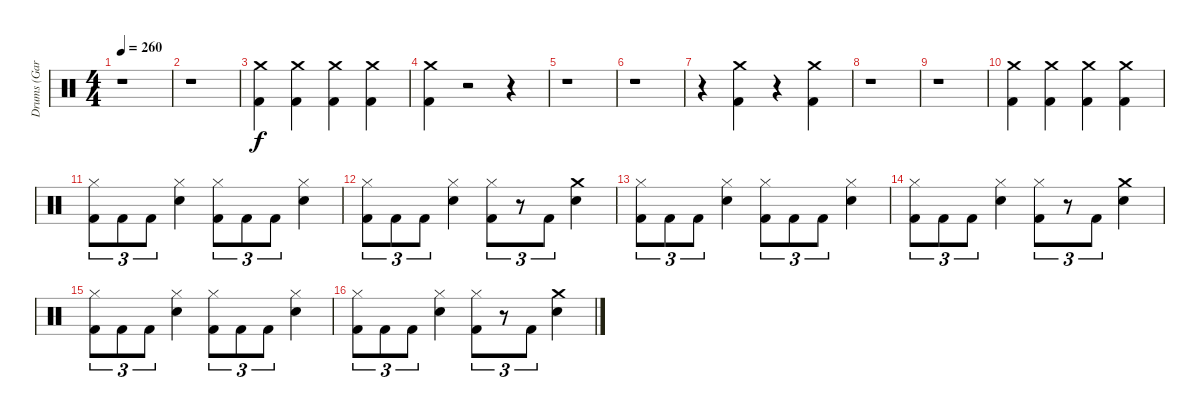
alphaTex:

\track ("Drums (Gar Samuelson)" "Drums (Gar") {instrument percussion}
\staff {score}
\articulation defaults
\ts (4 4)
\tempo 260
\clef neutral
\ks c
r.1{dy f} |
r.1 |
("Crash medium (hit)" "Kick (hit) 2").4 ("Crash medium (hit)" "Kick (hit) 2").4 ("Crash medium (hit)" "Kick (hit) 2").4 ("Crash medium (hit)" "Kick (hit) 2").4 |
("Crash medium (hit)" "Kick (hit) 2").4 r.2 r.4 |
r.1 |
r.1 |
r.4 ("Crash medium (hit)" "Kick (hit) 2").4 r.4 ("Crash medium (hit)" "Kick (hit) 2").4 |
r.1 |
r.1 |
("Crash medium (hit)" "Kick (hit) 2").4 ("Crash medium (hit)" "Kick (hit) 2").4 ("Crash medium (hit)" "Kick (hit) 2").4 ("Crash medium (hit)" "Kick (hit) 2").4 |
("Hi-Hat (closed)" "Kick (hit) 2").8{tu (3 2)} "Kick (hit) 2".8{tu (3 2)} "Kick (hit) 2".8{tu (3 2)} ("Hi-Hat (closed)" "Snare (hit) 2").4 ("Hi-Hat (closed)" "Kick (hit) 2").8{tu (3 2)} "Kick (hit) 2".8{tu (3 2)} "Kick (hit) 2".8{tu (3 2)} ("Hi-Hat (closed)" "Snare (hit) 2").4 |
("Hi-Hat (closed)" "Kick (hit) 2").8{tu (3 2)} "Kick (hit) 2".8{tu (3 2)} "Kick (hit) 2".8{tu (3 2)} ("Hi-Hat (closed)" "Snare (hit) 2").4 ("Hi-Hat (closed)" "Kick (hit) 2").8{tu (3 2)} r.8{tu (3 2)} "Kick (hit) 2".8{tu (3 2)} ("Crash medium (hit)" "Snare (hit) 2").4 |
("Hi-Hat (closed)" "Kick (hit) 2").8{tu (3 2)} "Kick (hit) 2".8{tu (3 2)} "Kick (hit) 2".8{tu (3 2)} ("Hi-Hat (closed)" "Snare (hit) 2").4 ("Hi-Hat (closed)" "Kick (hit) 2").8{tu (3 2)} "Kick (hit) 2".8{tu (3 2)} "Kick (hit) 2".8{tu (3 2)} ("Hi-Hat (closed)" "Snare (hit) 2").4 |
("Hi-Hat (closed)" "Kick (hit) 2").8{tu (3 2)} "Kick (hit) 2".8{tu (3 2)} "Kick (hit) 2".8{tu (3 2)} ("Hi-Hat (closed)" "Snare (hit) 2").4 ("Hi-Hat (closed)" "Kick (hit) 2").8{tu (3 2)} r.8{tu (3 2)} "Kick (hit) 2".8{tu (3 2)} ("Crash medium (hit)" "Snare (hit) 2").4 |
("Hi-Hat (closed)" "Kick (hit) 2").8{tu (3 2)} "Kick (hit) 2".8{tu (3 2)} "Kick (hit) 2".8{tu (3 2)} ("Hi-Hat (closed)" "Snare (hit) 2").4 ("Hi-Hat (closed)" "Kick (hit) 2").8{tu (3 2)} "Kick (hit) 2".8{tu (3 2)} "Kick (hit) 2".8{tu (3 2)} ("Hi-Hat (closed)" "Snare (hit) 2").4 |
("Hi-Hat (closed)" "Kick (hit) 2").8{tu (3 2)} "Kick (hit) 2".8{tu (3 2)} "Kick (hit) 2".8{tu (3 2)} ("Hi-Hat (closed)" "Snare (hit) 2").4 ("Hi-Hat (closed)" "Kick (hit) 2").8{tu (3 2)} r.8{tu (3 2)} "Kick (hit) 2".8{tu (3 2)} ("Crash medium (hit)" "Snare (hit) 2").4
